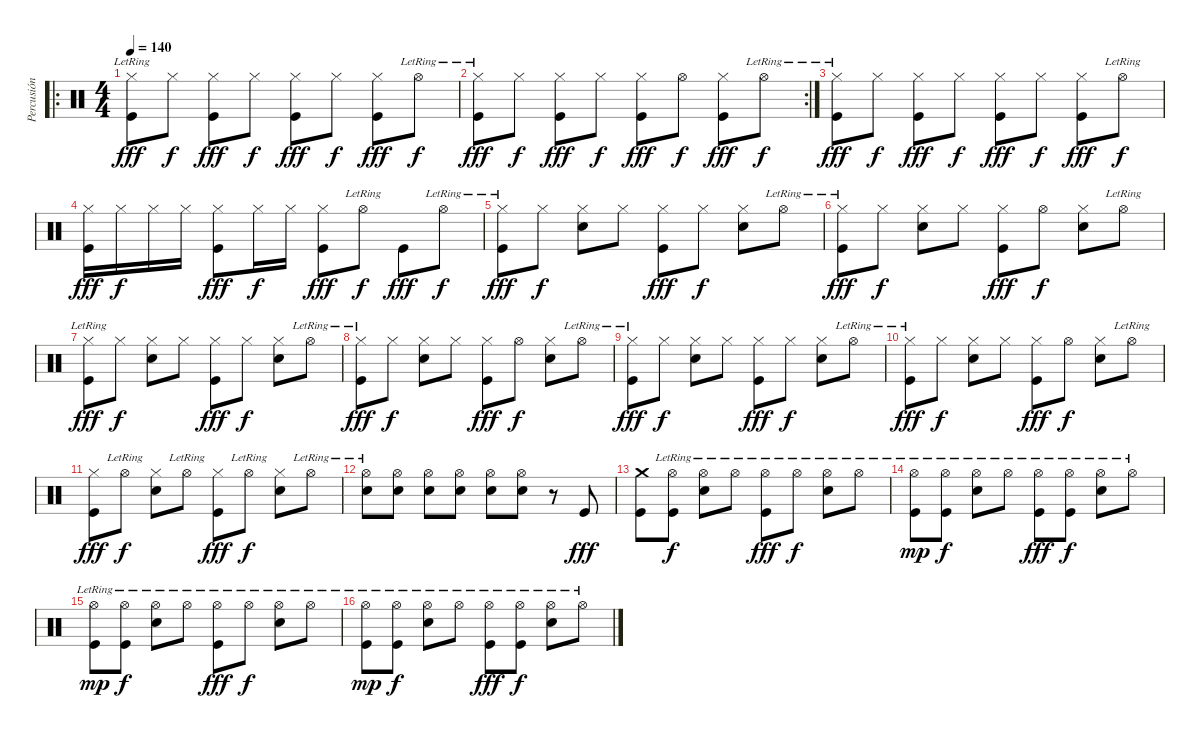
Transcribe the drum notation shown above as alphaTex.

\track ("Percusión" "Percusión") {instrument percussion}
\staff {score}
\articulation defaults
\ro
\ts (4 4)
\tempo 140
\clef neutral
\ks c
("Kick (hit)" "Hi-Hat (closed)"{lr}).8{dy fff} "Hi-Hat (closed)".8{dy f} ("Kick (hit)" "Hi-Hat (closed)").8{dy fff} "Hi-Hat (closed)".8{dy f} ("Kick (hit)" "Hi-Hat (closed)").8{dy fff} "Hi-Hat (closed)".8{dy f} ("Kick (hit)" "Hi-Hat (closed)").8{dy fff} "Hi-Hat (open)"{lr}.8{dy f} |
\rc 2
("Kick (hit)" "Hi-Hat (closed)"{lr}).8{dy fff} "Hi-Hat (closed)".8{dy f} ("Kick (hit)" "Hi-Hat (closed)").8{dy fff} "Hi-Hat (closed)".8{dy f} ("Kick (hit)" "Hi-Hat (closed)").8{dy fff} "Hi-Hat (open)".8{dy f} ("Kick (hit)" "Hi-Hat (closed)").8{dy fff} "Hi-Hat (open)"{lr}.8{dy f} |
("Kick (hit)" "Hi-Hat (closed)"{lr}).8{dy fff} "Hi-Hat (closed)".8{dy f} ("Kick (hit)" "Hi-Hat (closed)").8{dy fff} "Hi-Hat (closed)".8{dy f} ("Kick (hit)" "Hi-Hat (closed)").8{dy fff} "Hi-Hat (closed)".8{dy f} ("Kick (hit)" "Hi-Hat (closed)").8{dy fff} "Hi-Hat (open)"{lr}.8{dy f} |
("Kick (hit)" "Hi-Hat (closed)").16{dy fff} "Hi-Hat (closed)".16{dy f} "Hi-Hat (closed)".16 "Hi-Hat (closed)".16 ("Kick (hit)" "Hi-Hat (closed)").8{dy fff} "Hi-Hat (closed)".16{dy f} "Hi-Hat (closed)".16 ("Kick (hit)" "Hi-Hat (closed)").8{dy fff} "Hi-Hat (open)"{lr}.8{dy f} "Kick (hit)".8{dy fff} "Hi-Hat (open)"{lr}.8{dy f} |
("Kick (hit)" "Hi-Hat (closed)"{lr}).8{dy fff} "Hi-Hat (closed)".8{dy f} ("Snare (hit) 2" "Hi-Hat (closed)").8 "Hi-Hat (closed)".8 ("Kick (hit)" "Hi-Hat (closed)").8{dy fff} "Hi-Hat (closed)".8{dy f} ("Snare (hit) 2" "Hi-Hat (closed)").8 "Hi-Hat (open)"{lr}.8 |
("Kick (hit)" "Hi-Hat (closed)"{lr}).8{dy fff} "Hi-Hat (closed)".8{dy f} ("Snare (hit) 2" "Hi-Hat (closed)").8 "Hi-Hat (closed)".8 ("Kick (hit)" "Hi-Hat (closed)").8{dy fff} "Hi-Hat (open)".8{dy f} ("Snare (hit) 2" "Hi-Hat (closed)").8 "Hi-Hat (open)"{lr}.8 |
("Kick (hit)" "Hi-Hat (closed)"{lr}).8{dy fff} "Hi-Hat (closed)".8{dy f} ("Snare (hit) 2" "Hi-Hat (closed)").8 "Hi-Hat (closed)".8 ("Kick (hit)" "Hi-Hat (closed)").8{dy fff} "Hi-Hat (closed)".8{dy f} ("Snare (hit) 2" "Hi-Hat (closed)").8 "Hi-Hat (open)"{lr}.8 |
("Kick (hit)" "Hi-Hat (closed)"{lr}).8{dy fff} "Hi-Hat (closed)".8{dy f} ("Snare (hit) 2" "Hi-Hat (closed)").8 "Hi-Hat (closed)".8 ("Kick (hit)" "Hi-Hat (closed)").8{dy fff} "Hi-Hat (open)".8{dy f} ("Snare (hit) 2" "Hi-Hat (closed)").8 "Hi-Hat (open)"{lr}.8 |
("Kick (hit)" "Hi-Hat (closed)"{lr}).8{dy fff} "Hi-Hat (closed)".8{dy f} ("Snare (hit) 2" "Hi-Hat (closed)").8 "Hi-Hat (closed)".8 ("Kick (hit)" "Hi-Hat (closed)").8{dy fff} "Hi-Hat (closed)".8{dy f} ("Snare (hit) 2" "Hi-Hat (closed)").8 "Hi-Hat (open)"{lr}.8 |
("Kick (hit)" "Hi-Hat (closed)"{lr}).8{dy fff} "Hi-Hat (closed)".8{dy f} ("Snare (hit) 2" "Hi-Hat (closed)").8 "Hi-Hat (closed)".8 ("Kick (hit)" "Hi-Hat (closed)").8{dy fff} "Hi-Hat (open)".8{dy f} ("Snare (hit) 2" "Hi-Hat (closed)").8 "Hi-Hat (open)"{lr}.8 |
("Kick (hit)" "Hi-Hat (closed)").8{dy fff} "Hi-Hat (open)"{lr}.8{dy f} ("Snare (hit) 2" "Hi-Hat (closed)").8 "Hi-Hat (open)"{lr}.8 ("Kick (hit)" "Hi-Hat (closed)").8{dy fff} "Hi-Hat (open)"{lr}.8{dy f} ("Snare (hit) 2" "Hi-Hat (closed)").8 "Hi-Hat (open)"{lr}.8 |
("Snare (hit) 2" "Hi-Hat (open)"{lr}).8 ("Snare (hit) 2" "Hi-Hat (open)").8 ("Snare (hit) 2" "Hi-Hat (open)").8 ("Snare (hit) 2" "Hi-Hat (open)").8 ("Snare (hit) 2" "Hi-Hat (open)").8 ("Snare (hit) 2" "Hi-Hat (open)").8 r.8 "Kick (hit)".8{dy fff} |
("Kick (hit)" "Crash medium (hit)").8 ("Kick (hit)" "Hi-Hat (open)"{lr}).8{dy f} ("Snare (hit) 2" "Hi-Hat (open)"{lr}).8 "Hi-Hat (open)"{lr}.8 ("Kick (hit)" "Hi-Hat (open)"{lr}).8{dy fff} "Hi-Hat (open)"{lr}.8{dy f} ("Snare (hit) 2" "Hi-Hat (open)"{lr}).8 "Hi-Hat (open)"{lr}.8 |
("Kick (hit)" "Hi-Hat (open)"{lr}).8{dy mp} ("Kick (hit)" "Hi-Hat (open)"{lr}).8{dy f} ("Snare (hit) 2" "Hi-Hat (open)"{lr}).8 "Hi-Hat (open)"{lr}.8 ("Kick (hit)" "Hi-Hat (open)"{lr}).8{dy fff} ("Kick (hit)" "Hi-Hat (open)"{lr}).8{dy f} ("Snare (hit) 2" "Hi-Hat (open)"{lr}).8 "Hi-Hat (open)"{lr}.8 |
("Kick (hit)" "Hi-Hat (open)"{lr}).8{dy mp} ("Kick (hit)" "Hi-Hat (open)"{lr}).8{dy f} ("Snare (hit) 2" "Hi-Hat (open)"{lr}).8 "Hi-Hat (open)"{lr}.8 ("Kick (hit)" "Hi-Hat (open)"{lr}).8{dy fff} "Hi-Hat (open)"{lr}.8{dy f} ("Snare (hit) 2" "Hi-Hat (open)"{lr}).8 "Hi-Hat (open)"{lr}.8 |
("Kick (hit)" "Hi-Hat (open)"{lr}).8{dy mp} ("Kick (hit)" "Hi-Hat (open)"{lr}).8{dy f} ("Snare (hit) 2" "Hi-Hat (open)"{lr}).8 "Hi-Hat (open)"{lr}.8 ("Kick (hit)" "Hi-Hat (open)"{lr}).8{dy fff} ("Kick (hit)" "Hi-Hat (open)"{lr}).8{dy f} ("Snare (hit) 2" "Hi-Hat (open)"{lr}).8 "Hi-Hat (open)"{lr}.8
